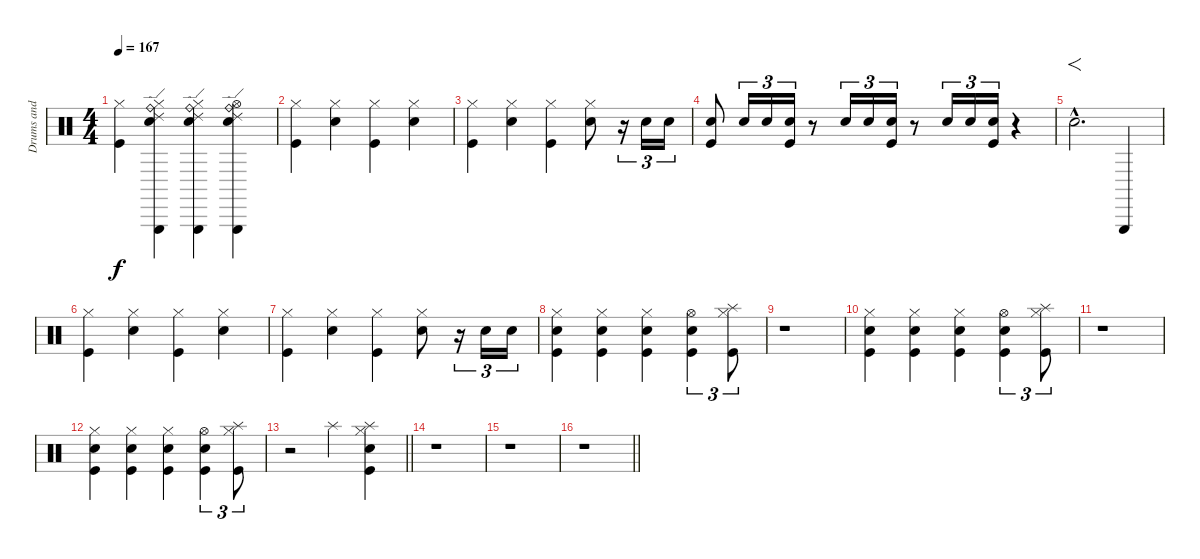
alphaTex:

\track ("Drums and percussion" "Drums and ") {instrument percussion}
\staff {score}
\articulation defaults
\ts (4 4)
\tempo 167
\clef neutral
\ks c
("Hi-Hat (closed)" "Kick (hit)").4{dy f} ("Snare (hit) 2" "Triangle (hit)" "Hi-Hat (closed)" "Ride (edge) 2" "Ride (bell)").4 ("Snare (hit) 2" "Triangle (hit)" "Hi-Hat (closed)" "Ride (edge) 2" "Ride (bell)").4 ("Snare (hit) 2" "Triangle (hit)" "Hi-Hat (open)" "Ride (edge) 2" "Ride (bell)").4 |
("Hi-Hat (closed)" "Kick (hit)").4 ("Hi-Hat (closed)" "Snare (hit) 2").4 ("Hi-Hat (closed)" "Kick (hit)").4 ("Hi-Hat (closed)" "Snare (hit) 2").4 |
("Hi-Hat (closed)" "Kick (hit)").4 ("Hi-Hat (closed)" "Snare (hit) 2").4 ("Hi-Hat (closed)" "Kick (hit)").4 ("Hi-Hat (closed)" "Snare (hit) 2").8 r.16{tu (3 2)} "Snare (hit) 2".16{tu (3 2)} "Snare (hit) 2".16{tu (3 2)} |
("Kick (hit)" "Snare (hit) 2").8 "Snare (hit) 2".16{tu (3 2)} "Snare (hit) 2".16{tu (3 2)} ("Kick (hit)" "Snare (hit) 2").16{tu (3 2)} r.8 "Snare (hit) 2".16{tu (3 2)} "Snare (hit) 2".16{tu (3 2)} ("Kick (hit)" "Snare (hit) 2").16{tu (3 2)} r.8 "Snare (hit) 2".16{tu (3 2)} "Snare (hit) 2".16{tu (3 2)} ("Kick (hit)" "Snare (hit) 2").16{tu (3 2)} r.4 |
"Snare (hit) 2"{tr (38 32) hac}.2{f d} "Triangle (hit)".4 |
("Hi-Hat (closed)" "Kick (hit)").4 ("Hi-Hat (closed)" "Snare (hit) 2").4 ("Hi-Hat (closed)" "Kick (hit)").4 ("Hi-Hat (closed)" "Snare (hit) 2").4 |
("Hi-Hat (closed)" "Kick (hit)").4 ("Hi-Hat (closed)" "Snare (hit) 2").4 ("Hi-Hat (closed)" "Kick (hit)").4 ("Hi-Hat (closed)" "Snare (hit) 2").8 r.16{tu (3 2)} "Snare (hit) 2".16{tu (3 2)} "Snare (hit) 2".16{tu (3 2)} |
("Hi-Hat (closed)" "Snare (hit) 2" "Kick (hit)").4 ("Hi-Hat (closed)" "Snare (hit) 2" "Kick (hit)").4 ("Hi-Hat (closed)" "Snare (hit) 2" "Kick (hit)").4 ("Hi-Hat (open)" "Snare (hit) 2" "Kick (hit)").4{tu (3 2)} ("Hi-Hat (closed)" "Splash (hit)" "Kick (hit)").8{tu (3 2)} |
r.1 |
("Hi-Hat (closed)" "Snare (hit) 2" "Kick (hit)").4 ("Hi-Hat (closed)" "Snare (hit) 2" "Kick (hit)").4 ("Hi-Hat (closed)" "Snare (hit) 2" "Kick (hit)").4 ("Hi-Hat (open)" "Snare (hit) 2" "Kick (hit)").4{tu (3 2)} ("Hi-Hat (closed)" "Splash (hit)" "Kick (hit)").8{tu (3 2)} |
r.1 |
("Hi-Hat (closed)" "Snare (hit) 2" "Kick (hit)").4 ("Hi-Hat (closed)" "Snare (hit) 2" "Kick (hit)").4 ("Hi-Hat (closed)" "Snare (hit) 2" "Kick (hit)").4 ("Hi-Hat (open)" "Snare (hit) 2" "Kick (hit)").4{tu (3 2)} ("Hi-Hat (closed)" "Splash (hit)" "Kick (hit)").8{tu (3 2)} |
\barLineRight lightlight
r.2 "Splash (hit)".4 ("Hi-Hat (closed)" "Splash (hit)" "Snare (hit) 2" "Kick (hit)").4 |
r.1 |
r.1 |
\barLineRight lightlight
r.1
